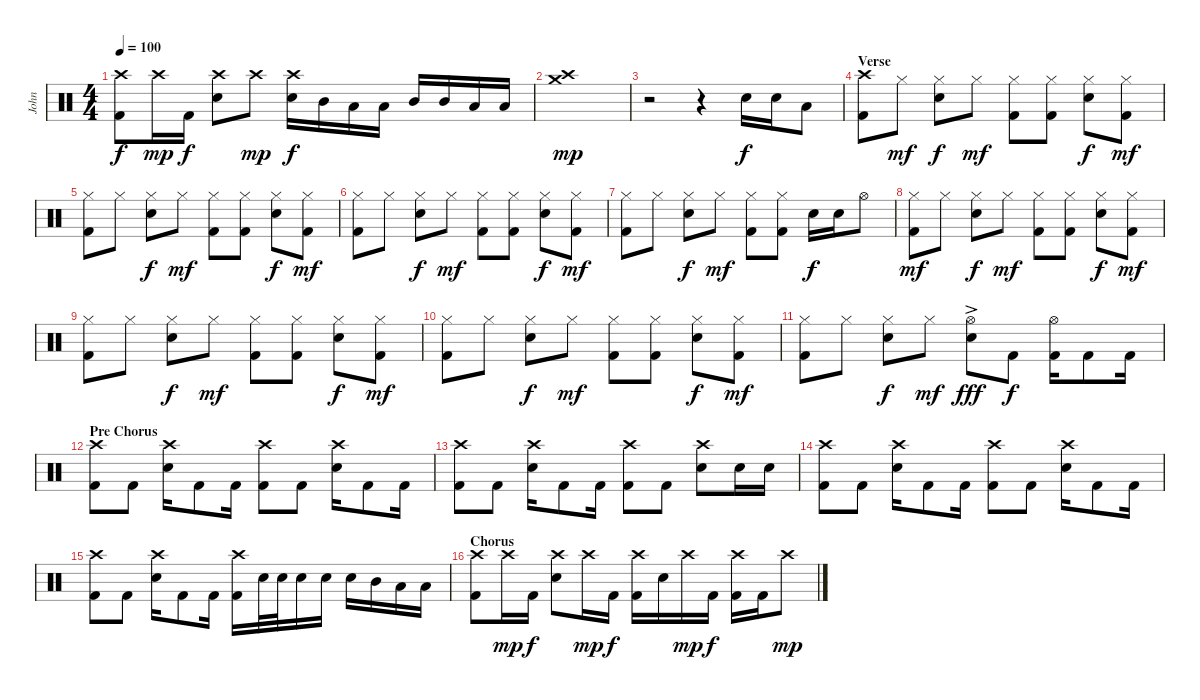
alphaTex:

\track ("John" "John") {instrument percussion}
\staff {score}
\articulation defaults
\ts (4 4)
\tempo 100
\clef neutral
\ks c
("Crash high (hit)" "Kick (hit) 2").8{dy f} "Crash high (hit)".16{dy mp} "Kick (hit) 2".16{dy f} ("Crash high (hit)" "Electric Snare (hit)").8 "Crash high (hit)".8{dy mp} ("Crash high (hit)" "Electric Snare (hit)").16{dy f} "Mid Tom (hit)".16 "Low Tom (hit)".16 "Low Floor Tom (hit)".16 "Mid Tom (hit)".16 "Mid Tom (hit)".16 "Low Tom (hit)".16 "Low Floor Tom (hit)".16 |
("Crash medium (hit)" "Crash high (hit)").1{dy mp} |
r.2 r.4 "Electric Snare (hit)".16{dy f} "Electric Snare (hit)".16 "Low Tom (hit)".8 |
\section ("" "Verse")
("Crash high (hit)" "Kick (hit) 2").8 "Hi-Hat (closed)".8{dy mf} ("Hi-Hat (closed)" "Electric Snare (hit)").8{dy f} "Hi-Hat (closed)".8{dy mf} ("Hi-Hat (closed)" "Kick (hit) 2").8 ("Hi-Hat (closed)" "Kick (hit) 2").8 ("Hi-Hat (closed)" "Electric Snare (hit)").8{dy f} ("Hi-Hat (closed)" "Kick (hit) 2").8{dy mf} |
("Hi-Hat (closed)" "Kick (hit) 2").8 "Hi-Hat (closed)".8 ("Hi-Hat (closed)" "Electric Snare (hit)").8{dy f} "Hi-Hat (closed)".8{dy mf} ("Hi-Hat (closed)" "Kick (hit) 2").8 ("Hi-Hat (closed)" "Kick (hit) 2").8 ("Hi-Hat (closed)" "Electric Snare (hit)").8{dy f} ("Hi-Hat (closed)" "Kick (hit) 2").8{dy mf} |
("Hi-Hat (closed)" "Kick (hit) 2").8 "Hi-Hat (closed)".8 ("Hi-Hat (closed)" "Electric Snare (hit)").8{dy f} "Hi-Hat (closed)".8{dy mf} ("Hi-Hat (closed)" "Kick (hit) 2").8 ("Hi-Hat (closed)" "Kick (hit) 2").8 ("Hi-Hat (closed)" "Electric Snare (hit)").8{dy f} ("Hi-Hat (closed)" "Kick (hit) 2").8{dy mf} |
("Hi-Hat (closed)" "Kick (hit) 2").8 "Hi-Hat (closed)".8 ("Hi-Hat (closed)" "Electric Snare (hit)").8{dy f} "Hi-Hat (closed)".8{dy mf} ("Hi-Hat (closed)" "Kick (hit) 2").8 ("Hi-Hat (closed)" "Kick (hit) 2").8 "Electric Snare (hit)".16{dy f} "Electric Snare (hit)".16 "Hi-Hat (open)".8 |
("Hi-Hat (closed)" "Kick (hit) 2").8{dy mf} "Hi-Hat (closed)".8 ("Hi-Hat (closed)" "Electric Snare (hit)").8{dy f} "Hi-Hat (closed)".8{dy mf} ("Hi-Hat (closed)" "Kick (hit) 2").8 ("Hi-Hat (closed)" "Kick (hit) 2").8 ("Hi-Hat (closed)" "Electric Snare (hit)").8{dy f} ("Hi-Hat (closed)" "Kick (hit) 2").8{dy mf} |
("Hi-Hat (closed)" "Kick (hit) 2").8 "Hi-Hat (closed)".8 ("Hi-Hat (closed)" "Electric Snare (hit)").8{dy f} "Hi-Hat (closed)".8{dy mf} ("Hi-Hat (closed)" "Kick (hit) 2").8 ("Hi-Hat (closed)" "Kick (hit) 2").8 ("Hi-Hat (closed)" "Electric Snare (hit)").8{dy f} ("Hi-Hat (closed)" "Kick (hit) 2").8{dy mf} |
("Hi-Hat (closed)" "Kick (hit) 2").8 "Hi-Hat (closed)".8 ("Hi-Hat (closed)" "Electric Snare (hit)").8{dy f} "Hi-Hat (closed)".8{dy mf} ("Hi-Hat (closed)" "Kick (hit) 2").8 ("Hi-Hat (closed)" "Kick (hit) 2").8 ("Hi-Hat (closed)" "Electric Snare (hit)").8{dy f} ("Hi-Hat (closed)" "Kick (hit) 2").8{dy mf} |
("Hi-Hat (closed)" "Kick (hit) 2").8 "Hi-Hat (closed)".8 ("Hi-Hat (closed)" "Electric Snare (hit)").8{dy f} "Hi-Hat (closed)".8{dy mf} ("Hi-Hat (open)" "Electric Snare (hit)"{ac}).8{dy fff} "Kick (hit) 2".8{dy f} ("Hi-Hat (open)" "Kick (hit) 2").16 "Kick (hit) 2".8 "Kick (hit) 2".16 |
\section ("" "Pre Chorus")
("Crash high (hit)" "Kick (hit) 2").8 "Kick (hit) 2".8 ("Crash high (hit)" "Electric Snare (hit)").16 "Kick (hit) 2".8 "Kick (hit) 2".16 ("Crash high (hit)" "Kick (hit) 2").8 "Kick (hit) 2".8 ("Crash high (hit)" "Electric Snare (hit)").16 "Kick (hit) 2".8 "Kick (hit) 2".16 |
("Crash high (hit)" "Kick (hit) 2").8 "Kick (hit) 2".8 ("Crash high (hit)" "Electric Snare (hit)").16 "Kick (hit) 2".8 "Kick (hit) 2".16 ("Crash high (hit)" "Kick (hit) 2").8 "Kick (hit) 2".8 ("Crash high (hit)" "Electric Snare (hit)").8 "Electric Snare (hit)".16 "Electric Snare (hit)".16 |
("Crash high (hit)" "Kick (hit) 2").8 "Kick (hit) 2".8 ("Crash high (hit)" "Electric Snare (hit)").16 "Kick (hit) 2".8 "Kick (hit) 2".16 ("Crash high (hit)" "Kick (hit) 2").8 "Kick (hit) 2".8 ("Crash high (hit)" "Electric Snare (hit)").16 "Kick (hit) 2".8 "Kick (hit) 2".16 |
("Crash high (hit)" "Kick (hit) 2").8 "Kick (hit) 2".8 ("Crash high (hit)" "Electric Snare (hit)").16 "Kick (hit) 2".8 "Kick (hit) 2".16 ("Crash high (hit)" "Kick (hit) 2").16 "Electric Snare (hit)".32 "Electric Snare (hit)".32 "Electric Snare (hit)".16 "Electric Snare (hit)".16 "Electric Snare (hit)".16 "Mid Tom (hit)".16 "Low Tom (hit)".16 "Low Floor Tom (hit)".16 |
\section ("" "Chorus")
("Crash high (hit)" "Kick (hit) 2").8 "Crash high (hit)".16{dy mp} "Kick (hit) 2".16{dy f} ("Crash high (hit)" "Electric Snare (hit)").8 "Crash high (hit)".16{dy mp} "Kick (hit) 2".16{dy f} ("Crash high (hit)" "Kick (hit) 2").16 "Electric Snare (hit)".16 "Crash high (hit)".16{dy mp} "Kick (hit) 2".16{dy f} ("Crash high (hit)" "Kick (hit) 2").16 "Kick (hit) 2".16 "Crash high (hit)".8{dy mp}
